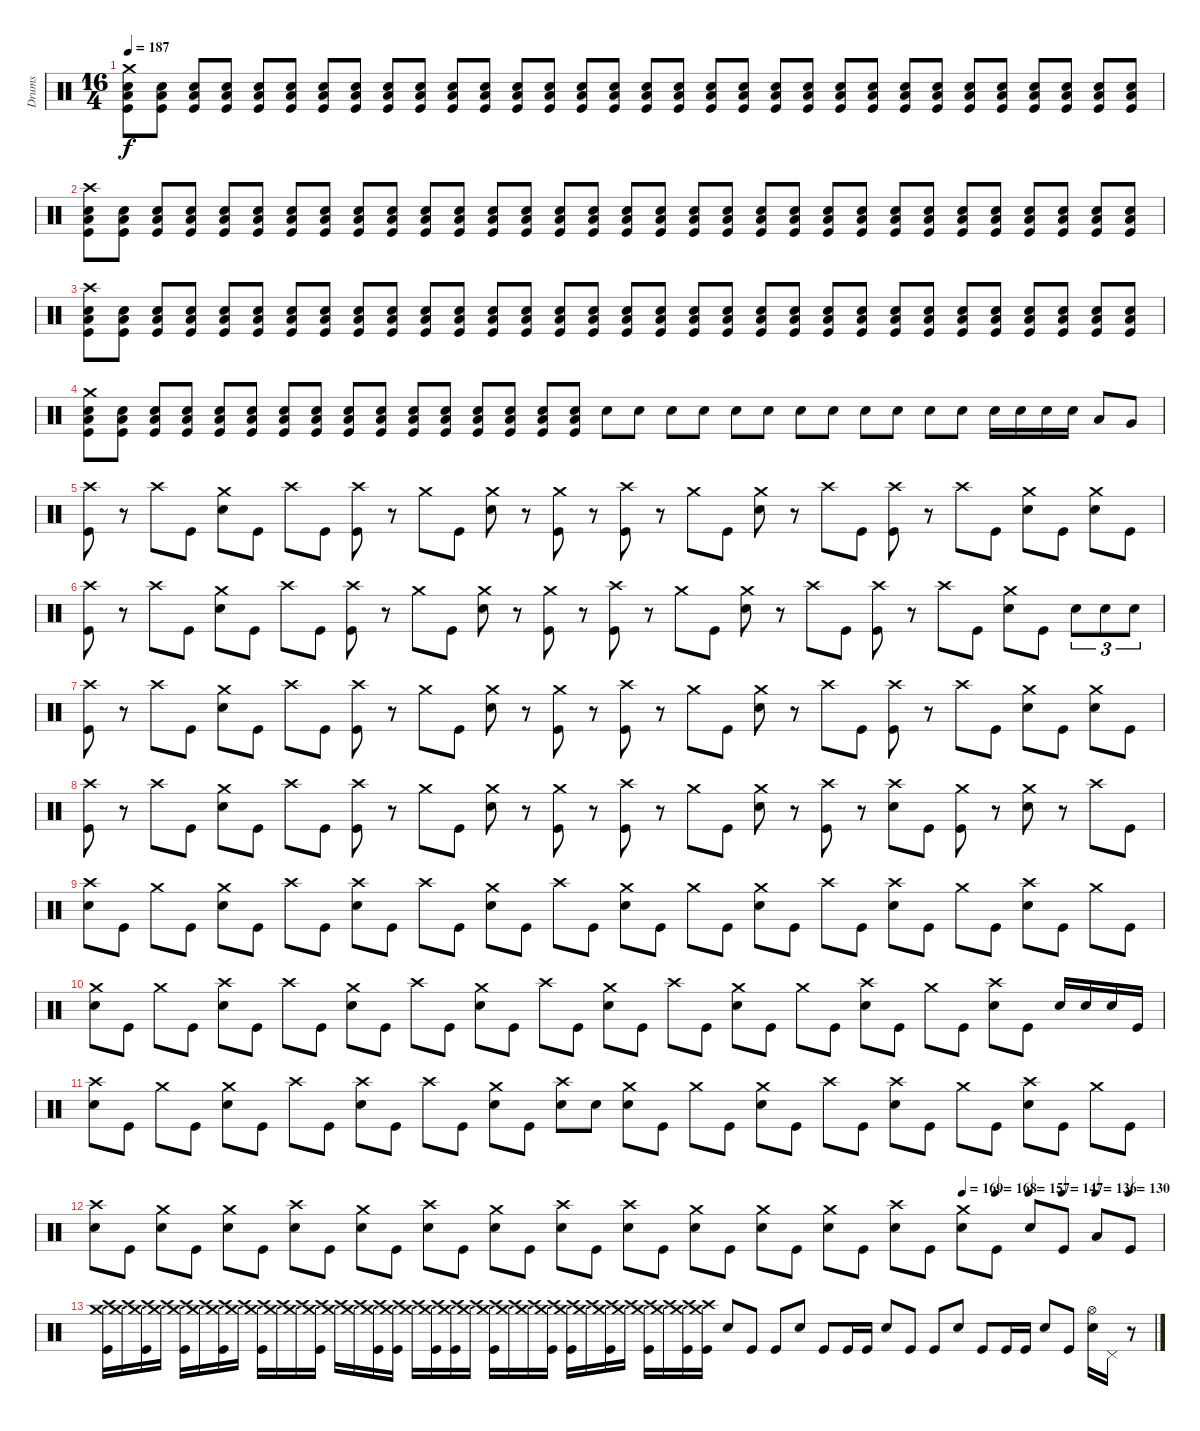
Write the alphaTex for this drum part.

\track ("Drums" "Drums") {instrument percussion}
\staff {score}
\articulation defaults
\ts (16 4)
\tempo 187
\clef neutral
\ks c
("Kick (hit)" "Low Floor Tom (hit)" "Electric Snare (hit)" "Crash medium (hit)").8{dy f} ("Kick (hit)" "Low Floor Tom (hit)" "Electric Snare (hit)").8{volume 3} ("Kick (hit)" "Low Floor Tom (hit)" "Electric Snare (hit)").8 ("Kick (hit)" "Low Floor Tom (hit)" "Electric Snare (hit)").8 ("Kick (hit)" "Low Floor Tom (hit)" "Electric Snare (hit)").8{volume 6} ("Kick (hit)" "Low Floor Tom (hit)" "Electric Snare (hit)").8 ("Kick (hit)" "Low Floor Tom (hit)" "Electric Snare (hit)").8 ("Kick (hit)" "Low Floor Tom (hit)" "Electric Snare (hit)").8 ("Kick (hit)" "Low Floor Tom (hit)" "Electric Snare (hit)").8 ("Kick (hit)" "Low Floor Tom (hit)" "Electric Snare (hit)").8 ("Kick (hit)" "Low Floor Tom (hit)" "Electric Snare (hit)").8{volume 8} ("Kick (hit)" "Low Floor Tom (hit)" "Electric Snare (hit)").8 ("Kick (hit)" "Low Floor Tom (hit)" "Electric Snare (hit)").8 ("Kick (hit)" "Low Floor Tom (hit)" "Electric Snare (hit)").8 ("Kick (hit)" "Low Floor Tom (hit)" "Electric Snare (hit)").8 ("Kick (hit)" "Low Floor Tom (hit)" "Electric Snare (hit)").8 ("Kick (hit)" "Low Floor Tom (hit)" "Electric Snare (hit)").8 ("Kick (hit)" "Low Floor Tom (hit)" "Electric Snare (hit)").8 ("Kick (hit)" "Low Floor Tom (hit)" "Electric Snare (hit)").8{volume 10} ("Kick (hit)" "Low Floor Tom (hit)" "Electric Snare (hit)").8 ("Kick (hit)" "Low Floor Tom (hit)" "Electric Snare (hit)").8 ("Kick (hit)" "Low Floor Tom (hit)" "Electric Snare (hit)").8 ("Kick (hit)" "Low Floor Tom (hit)" "Electric Snare (hit)").8 ("Kick (hit)" "Low Floor Tom (hit)" "Electric Snare (hit)").8 ("Kick (hit)" "Low Floor Tom (hit)" "Electric Snare (hit)").8 ("Kick (hit)" "Low Floor Tom (hit)" "Electric Snare (hit)").8{volume 11} ("Kick (hit)" "Low Floor Tom (hit)" "Electric Snare (hit)").8 ("Kick (hit)" "Low Floor Tom (hit)" "Electric Snare (hit)").8 ("Kick (hit)" "Low Floor Tom (hit)" "Electric Snare (hit)").8 ("Kick (hit)" "Low Floor Tom (hit)" "Electric Snare (hit)").8 ("Kick (hit)" "Low Floor Tom (hit)" "Electric Snare (hit)").8 ("Kick (hit)" "Low Floor Tom (hit)" "Electric Snare (hit)").8{volume 13} |
("Kick (hit)" "Low Floor Tom (hit)" "Electric Snare (hit)" "Crash high (hit)").8 ("Kick (hit)" "Low Floor Tom (hit)" "Electric Snare (hit)").8{volume 3} ("Kick (hit)" "Low Floor Tom (hit)" "Electric Snare (hit)").8 ("Kick (hit)" "Low Floor Tom (hit)" "Electric Snare (hit)").8 ("Kick (hit)" "Low Floor Tom (hit)" "Electric Snare (hit)").8{volume 6} ("Kick (hit)" "Low Floor Tom (hit)" "Electric Snare (hit)").8 ("Kick (hit)" "Low Floor Tom (hit)" "Electric Snare (hit)").8 ("Kick (hit)" "Low Floor Tom (hit)" "Electric Snare (hit)").8 ("Kick (hit)" "Low Floor Tom (hit)" "Electric Snare (hit)").8 ("Kick (hit)" "Low Floor Tom (hit)" "Electric Snare (hit)").8 ("Kick (hit)" "Low Floor Tom (hit)" "Electric Snare (hit)").8{volume 8} ("Kick (hit)" "Low Floor Tom (hit)" "Electric Snare (hit)").8 ("Kick (hit)" "Low Floor Tom (hit)" "Electric Snare (hit)").8 ("Kick (hit)" "Low Floor Tom (hit)" "Electric Snare (hit)").8 ("Kick (hit)" "Low Floor Tom (hit)" "Electric Snare (hit)").8 ("Kick (hit)" "Low Floor Tom (hit)" "Electric Snare (hit)").8 ("Kick (hit)" "Low Floor Tom (hit)" "Electric Snare (hit)").8 ("Kick (hit)" "Low Floor Tom (hit)" "Electric Snare (hit)").8 ("Kick (hit)" "Low Floor Tom (hit)" "Electric Snare (hit)").8{volume 10} ("Kick (hit)" "Low Floor Tom (hit)" "Electric Snare (hit)").8 ("Kick (hit)" "Low Floor Tom (hit)" "Electric Snare (hit)").8 ("Kick (hit)" "Low Floor Tom (hit)" "Electric Snare (hit)").8 ("Kick (hit)" "Low Floor Tom (hit)" "Electric Snare (hit)").8 ("Kick (hit)" "Low Floor Tom (hit)" "Electric Snare (hit)").8 ("Kick (hit)" "Low Floor Tom (hit)" "Electric Snare (hit)").8 ("Kick (hit)" "Low Floor Tom (hit)" "Electric Snare (hit)").8{volume 11} ("Kick (hit)" "Low Floor Tom (hit)" "Electric Snare (hit)").8 ("Kick (hit)" "Low Floor Tom (hit)" "Electric Snare (hit)").8 ("Kick (hit)" "Low Floor Tom (hit)" "Electric Snare (hit)").8 ("Kick (hit)" "Low Floor Tom (hit)" "Electric Snare (hit)").8 ("Kick (hit)" "Low Floor Tom (hit)" "Electric Snare (hit)").8 ("Kick (hit)" "Low Floor Tom (hit)" "Electric Snare (hit)").8{volume 13} |
("Kick (hit)" "Low Floor Tom (hit)" "Electric Snare (hit)" "Crash high (hit)").8 ("Kick (hit)" "Low Floor Tom (hit)" "Electric Snare (hit)").8{volume 3} ("Kick (hit)" "Low Floor Tom (hit)" "Electric Snare (hit)").8 ("Kick (hit)" "Low Floor Tom (hit)" "Electric Snare (hit)").8 ("Kick (hit)" "Low Floor Tom (hit)" "Electric Snare (hit)").8{volume 6} ("Kick (hit)" "Low Floor Tom (hit)" "Electric Snare (hit)").8 ("Kick (hit)" "Low Floor Tom (hit)" "Electric Snare (hit)").8 ("Kick (hit)" "Low Floor Tom (hit)" "Electric Snare (hit)").8 ("Kick (hit)" "Low Floor Tom (hit)" "Electric Snare (hit)").8 ("Kick (hit)" "Low Floor Tom (hit)" "Electric Snare (hit)").8 ("Kick (hit)" "Low Floor Tom (hit)" "Electric Snare (hit)").8{volume 8} ("Kick (hit)" "Low Floor Tom (hit)" "Electric Snare (hit)").8 ("Kick (hit)" "Low Floor Tom (hit)" "Electric Snare (hit)").8 ("Kick (hit)" "Low Floor Tom (hit)" "Electric Snare (hit)").8 ("Kick (hit)" "Low Floor Tom (hit)" "Electric Snare (hit)").8 ("Kick (hit)" "Low Floor Tom (hit)" "Electric Snare (hit)").8 ("Kick (hit)" "Low Floor Tom (hit)" "Electric Snare (hit)").8 ("Kick (hit)" "Low Floor Tom (hit)" "Electric Snare (hit)").8 ("Kick (hit)" "Low Floor Tom (hit)" "Electric Snare (hit)").8{volume 10} ("Kick (hit)" "Low Floor Tom (hit)" "Electric Snare (hit)").8 ("Kick (hit)" "Low Floor Tom (hit)" "Electric Snare (hit)").8 ("Kick (hit)" "Low Floor Tom (hit)" "Electric Snare (hit)").8 ("Kick (hit)" "Low Floor Tom (hit)" "Electric Snare (hit)").8 ("Kick (hit)" "Low Floor Tom (hit)" "Electric Snare (hit)").8 ("Kick (hit)" "Low Floor Tom (hit)" "Electric Snare (hit)").8 ("Kick (hit)" "Low Floor Tom (hit)" "Electric Snare (hit)").8{volume 11} ("Kick (hit)" "Low Floor Tom (hit)" "Electric Snare (hit)").8 ("Kick (hit)" "Low Floor Tom (hit)" "Electric Snare (hit)").8 ("Kick (hit)" "Low Floor Tom (hit)" "Electric Snare (hit)").8 ("Kick (hit)" "Low Floor Tom (hit)" "Electric Snare (hit)").8 ("Kick (hit)" "Low Floor Tom (hit)" "Electric Snare (hit)").8 ("Kick (hit)" "Low Floor Tom (hit)" "Electric Snare (hit)").8{volume 13} |
("Kick (hit)" "Low Floor Tom (hit)" "Electric Snare (hit)" "Crash medium (hit)").8 ("Kick (hit)" "Low Floor Tom (hit)" "Electric Snare (hit)").8{volume 3} ("Kick (hit)" "Low Floor Tom (hit)" "Electric Snare (hit)").8 ("Kick (hit)" "Low Floor Tom (hit)" "Electric Snare (hit)").8 ("Kick (hit)" "Low Floor Tom (hit)" "Electric Snare (hit)").8{volume 6} ("Kick (hit)" "Low Floor Tom (hit)" "Electric Snare (hit)").8 ("Kick (hit)" "Low Floor Tom (hit)" "Electric Snare (hit)").8 ("Kick (hit)" "Low Floor Tom (hit)" "Electric Snare (hit)").8 ("Kick (hit)" "Low Floor Tom (hit)" "Electric Snare (hit)").8{volume 9} ("Kick (hit)" "Low Floor Tom (hit)" "Electric Snare (hit)").8 ("Kick (hit)" "Low Floor Tom (hit)" "Electric Snare (hit)").8{volume 10} ("Kick (hit)" "Low Floor Tom (hit)" "Electric Snare (hit)").8 ("Kick (hit)" "Low Floor Tom (hit)" "Electric Snare (hit)").8 ("Kick (hit)" "Low Floor Tom (hit)" "Electric Snare (hit)").8{volume 12} ("Kick (hit)" "Low Floor Tom (hit)" "Electric Snare (hit)").8 ("Kick (hit)" "Low Floor Tom (hit)" "Electric Snare (hit)").8{volume 13} "Electric Snare (hit)".8{volume 12} "Electric Snare (hit)".8 "Electric Snare (hit)".8 "Electric Snare (hit)".8 "Electric Snare (hit)".8 "Electric Snare (hit)".8 "Electric Snare (hit)".8 "Electric Snare (hit)".8 "Electric Snare (hit)".8 "Electric Snare (hit)".8 "Electric Snare (hit)".8 "Electric Snare (hit)".8 "Electric Snare (hit)".16 "Electric Snare (hit)".16 "Electric Snare (hit)".16 "Electric Snare (hit)".16 "Low Tom (hit)".8 "Very Low Tom (hit)".8 |
("Crash high (hit)" "Kick (hit)").8 r.8 "Crash high (hit)".8 "Kick (hit)".8 ("Crash medium (hit)" "Electric Snare (hit)").8 "Kick (hit)".8 "Crash high (hit)".8 "Kick (hit)".8 ("Crash high (hit)" "Kick (hit)").8 r.8 "Crash medium (hit)".8 "Kick (hit)".8 ("Crash medium (hit)" "Electric Snare (hit)").8 r.8 ("Crash medium (hit)" "Kick (hit)").8 r.8 ("Crash high (hit)" "Kick (hit)").8 r.8 "Crash medium (hit)".8 "Kick (hit)".8 ("Crash medium (hit)" "Electric Snare (hit)").8 r.8 "Crash high (hit)".8 "Kick (hit)".8 ("Crash high (hit)" "Kick (hit)").8 r.8 "Crash high (hit)".8 "Kick (hit)".8 ("Crash medium (hit)" "Electric Snare (hit)").8 "Kick (hit)".8 ("Crash medium (hit)" "Electric Snare (hit)").8 "Kick (hit)".8 |
("Crash high (hit)" "Kick (hit)").8 r.8 "Crash high (hit)".8 "Kick (hit)".8 ("Crash medium (hit)" "Electric Snare (hit)").8 "Kick (hit)".8 "Crash high (hit)".8 "Kick (hit)".8 ("Crash high (hit)" "Kick (hit)").8 r.8 "Crash medium (hit)".8 "Kick (hit)".8 ("Crash medium (hit)" "Electric Snare (hit)").8 r.8 ("Crash medium (hit)" "Kick (hit)").8 r.8 ("Crash high (hit)" "Kick (hit)").8 r.8 "Crash medium (hit)".8 "Kick (hit)".8 ("Crash medium (hit)" "Electric Snare (hit)").8 r.8 "Crash high (hit)".8 "Kick (hit)".8 ("Crash high (hit)" "Kick (hit)").8 r.8 "Crash high (hit)".8 "Kick (hit)".8 ("Crash medium (hit)" "Electric Snare (hit)").8 "Kick (hit)".8 "Electric Snare (hit)".8{tu (3 2)} "Electric Snare (hit)".8{tu (3 2)} "Electric Snare (hit)".8{tu (3 2)} |
("Crash high (hit)" "Kick (hit)").8 r.8 "Crash high (hit)".8 "Kick (hit)".8 ("Crash medium (hit)" "Electric Snare (hit)").8 "Kick (hit)".8 "Crash high (hit)".8 "Kick (hit)".8 ("Crash high (hit)" "Kick (hit)").8 r.8 "Crash medium (hit)".8 "Kick (hit)".8 ("Crash medium (hit)" "Electric Snare (hit)").8 r.8 ("Crash medium (hit)" "Kick (hit)").8 r.8 ("Crash high (hit)" "Kick (hit)").8 r.8 "Crash medium (hit)".8 "Kick (hit)".8 ("Crash medium (hit)" "Electric Snare (hit)").8 r.8 "Crash high (hit)".8 "Kick (hit)".8 ("Crash high (hit)" "Kick (hit)").8 r.8 "Crash high (hit)".8 "Kick (hit)".8 ("Crash medium (hit)" "Electric Snare (hit)").8 "Kick (hit)".8 ("Crash medium (hit)" "Electric Snare (hit)").8 "Kick (hit)".8 |
("Crash high (hit)" "Kick (hit)").8 r.8 "Crash high (hit)".8 "Kick (hit)".8 ("Crash medium (hit)" "Electric Snare (hit)").8 "Kick (hit)".8 "Crash high (hit)".8 "Kick (hit)".8 ("Crash high (hit)" "Kick (hit)").8 r.8 "Crash medium (hit)".8 "Kick (hit)".8 ("Crash medium (hit)" "Electric Snare (hit)").8 r.8 ("Crash medium (hit)" "Kick (hit)").8 r.8 ("Crash high (hit)" "Kick (hit)").8 r.8 "Crash medium (hit)".8 "Kick (hit)".8 ("Crash medium (hit)" "Electric Snare (hit)").8 r.8 ("Crash high (hit)" "Kick (hit)").8 r.8 ("Crash high (hit)" "Electric Snare (hit)").8 "Kick (hit)".8 ("Crash medium (hit)" "Kick (hit)").8 r.8 ("Crash medium (hit)" "Electric Snare (hit)").8 r.8 "Crash high (hit)".8 "Kick (hit)".8 |
("Crash high (hit)" "Electric Snare (hit)").8 "Kick (hit)".8 "Crash medium (hit)".8 "Kick (hit)".8 ("Crash medium (hit)" "Electric Snare (hit)").8 "Kick (hit)".8 "Crash high (hit)".8 "Kick (hit)".8 ("Crash high (hit)" "Electric Snare (hit)").8 "Kick (hit)".8 "Crash high (hit)".8 "Kick (hit)".8 ("Crash medium (hit)" "Electric Snare (hit)").8 "Kick (hit)".8 "Crash high (hit)".8 "Kick (hit)".8 ("Crash medium (hit)" "Electric Snare (hit)").8 "Kick (hit)".8 "Crash medium (hit)".8 "Kick (hit)".8 ("Crash medium (hit)" "Electric Snare (hit)").8 "Kick (hit)".8 "Crash high (hit)".8 "Kick (hit)".8 ("Crash high (hit)" "Electric Snare (hit)").8 "Kick (hit)".8 "Crash medium (hit)".8 "Kick (hit)".8 ("Crash high (hit)" "Electric Snare (hit)").8 "Kick (hit)".8 "Crash medium (hit)".8 "Kick (hit)".8 |
("Crash medium (hit)" "Electric Snare (hit)").8 "Kick (hit)".8 "Crash medium (hit)".8 "Kick (hit)".8 ("Crash high (hit)" "Electric Snare (hit)").8 "Kick (hit)".8 "Crash high (hit)".8 "Kick (hit)".8 ("Crash medium (hit)" "Electric Snare (hit)").8 "Kick (hit)".8 "Crash high (hit)".8 "Kick (hit)".8 ("Crash medium (hit)" "Electric Snare (hit)").8 "Kick (hit)".8 "Crash high (hit)".8 "Kick (hit)".8 ("Crash medium (hit)" "Electric Snare (hit)").8 "Kick (hit)".8 "Crash high (hit)".8 "Kick (hit)".8 ("Crash medium (hit)" "Electric Snare (hit)").8 "Kick (hit)".8 "Crash medium (hit)".8 "Kick (hit)".8 ("Crash high (hit)" "Electric Snare (hit)").8 "Kick (hit)".8 "Crash medium (hit)".8 "Kick (hit)".8 ("Crash high (hit)" "Electric Snare (hit)").8 "Kick (hit)".8 "Electric Snare (hit)".16 "Electric Snare (hit)".16 "Electric Snare (hit)".16 "Kick (hit)".16 |
("Crash high (hit)" "Electric Snare (hit)").8 "Kick (hit)".8 "Crash medium (hit)".8 "Kick (hit)".8 ("Crash medium (hit)" "Electric Snare (hit)").8 "Kick (hit)".8 "Crash high (hit)".8 "Kick (hit)".8 ("Crash high (hit)" "Electric Snare (hit)").8 "Kick (hit)".8 "Crash high (hit)".8 "Kick (hit)".8 ("Crash medium (hit)" "Electric Snare (hit)").8 "Kick (hit)".8 ("Crash high (hit)" "Electric Snare (hit)").8 "Electric Snare (hit)".8 ("Crash medium (hit)" "Electric Snare (hit)").8 "Kick (hit)".8 "Crash medium (hit)".8 "Kick (hit)".8 ("Crash medium (hit)" "Electric Snare (hit)").8 "Kick (hit)".8 "Crash high (hit)".8 "Kick (hit)".8 ("Crash high (hit)" "Electric Snare (hit)").8 "Kick (hit)".8 "Crash medium (hit)".8 "Kick (hit)".8 ("Crash high (hit)" "Electric Snare (hit)").8 "Kick (hit)".8 "Crash medium (hit)".8 "Kick (hit)".8 |
\tempo (169 0.8125)
\tempo (168 0.84375)
\tempo (157 0.875)
\tempo (147 0.90625)
\tempo (136 0.9375)
\tempo (130 0.96875)
("Crash high (hit)" "Electric Snare (hit)").8 "Kick (hit)".8 ("Crash medium (hit)" "Electric Snare (hit)").8 "Kick (hit)".8 ("Crash medium (hit)" "Electric Snare (hit)").8 "Kick (hit)".8 ("Crash high (hit)" "Electric Snare (hit)").8 "Kick (hit)".8 ("Crash medium (hit)" "Electric Snare (hit)").8 "Kick (hit)".8 ("Crash high (hit)" "Electric Snare (hit)").8 "Kick (hit)".8 ("Crash medium (hit)" "Electric Snare (hit)").8 "Kick (hit)".8 ("Crash high (hit)" "Electric Snare (hit)").8 "Kick (hit)".8 ("Crash high (hit)" "Electric Snare (hit)").8 "Kick (hit)".8 ("Crash medium (hit)" "Electric Snare (hit)").8 "Kick (hit)".8 ("Crash medium (hit)" "Electric Snare (hit)").8 "Kick (hit)".8 ("Crash medium (hit)" "Electric Snare (hit)").8 "Kick (hit)".8 ("Crash high (hit)" "Electric Snare (hit)").8 "Kick (hit)".8 ("Crash medium (hit)" "Electric Snare (hit)").8 "Kick (hit)".8 "Electric Snare (hit)".8 "Kick (hit)".8 "Low Tom (hit)".8 "Kick (hit)".8 |
("Crash high (hit)" "Crash medium (hit)" "Kick (hit)").16 ("Crash high (hit)" "Crash medium (hit)").16 ("Crash high (hit)" "Crash medium (hit)" "Kick (hit)").16 ("Crash high (hit)" "Crash medium (hit)").16 ("Crash high (hit)" "Crash medium (hit)" "Kick (hit)").16 ("Crash high (hit)" "Crash medium (hit)").16 ("Crash high (hit)" "Crash medium (hit)" "Kick (hit)").16 ("Crash high (hit)" "Crash medium (hit)").16 ("Crash high (hit)" "Crash medium (hit)" "Kick (hit)").16 ("Crash high (hit)" "Crash medium (hit)").16 ("Crash high (hit)" "Crash medium (hit)").16 ("Crash high (hit)" "Crash medium (hit)" "Kick (hit)").16 ("Crash high (hit)" "Crash medium (hit)").16 ("Crash high (hit)" "Crash medium (hit)").16 ("Crash high (hit)" "Crash medium (hit)" "Kick (hit)").16 ("Crash high (hit)" "Crash medium (hit)" "Kick (hit)").16 ("Crash high (hit)" "Crash medium (hit)").16 ("Crash high (hit)" "Crash medium (hit)" "Kick (hit)").16 ("Crash high (hit)" "Crash medium (hit)" "Kick (hit)").16 ("Crash high (hit)" "Crash medium (hit)").16 ("Crash high (hit)" "Crash medium (hit)" "Kick (hit)").16 ("Crash high (hit)" "Crash medium (hit)").16 ("Crash high (hit)" "Crash medium (hit)").16 ("Crash high (hit)" "Crash medium (hit)" "Kick (hit)").16 ("Crash high (hit)" "Crash medium (hit)" "Kick (hit)").16 ("Crash high (hit)" "Crash medium (hit)").16 ("Crash high (hit)" "Crash medium (hit)" "Kick (hit)").16 ("Crash high (hit)" "Crash medium (hit)").16 ("Crash high (hit)" "Crash medium (hit)" "Kick (hit)").16 ("Crash high (hit)" "Crash medium (hit)").16 ("Crash high (hit)" "Crash medium (hit)" "Kick (hit)").16 ("Crash high (hit)" "Crash medium (hit)" "Kick (hit)").16 "Electric Snare (hit)".8 "Kick (hit)".8 "Kick (hit)".8 "Electric Snare (hit)".8 "Kick (hit)".8 "Kick (hit)".16 "Kick (hit)".16 "Electric Snare (hit)".8 "Kick (hit)".8 "Kick (hit)".8 "Electric Snare (hit)".8 "Kick (hit)".8 "Kick (hit)".16 "Kick (hit)".16 "Electric Snare (hit)".8 "Kick (hit)".8 ("Electric Snare (hit)" "Hi-Hat (open)").16 "Pedal Hi-Hat (hit)".16 r.8
